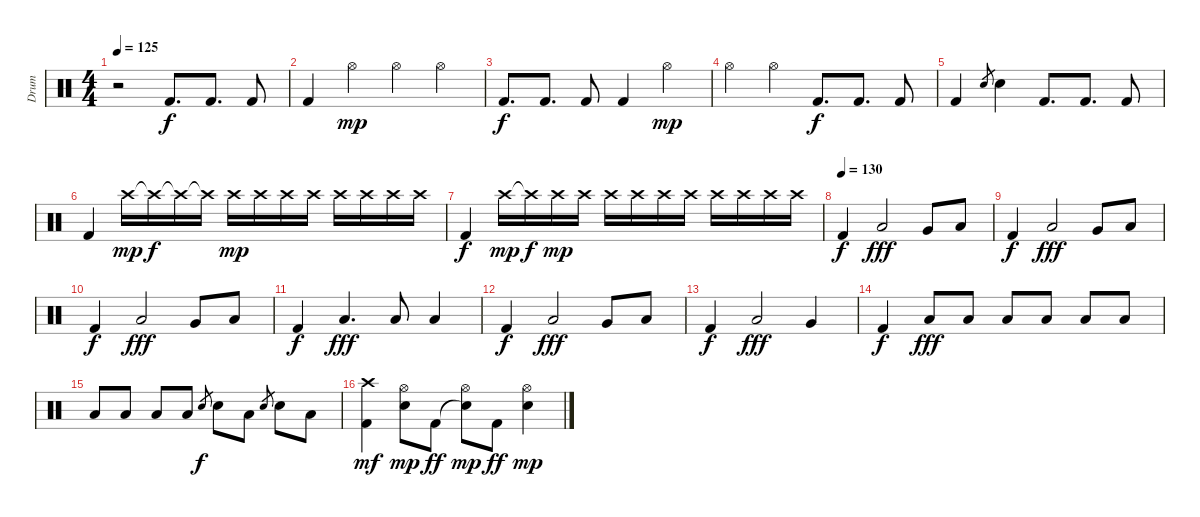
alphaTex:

\track ("Drum" "Drum") {instrument percussion}
\staff {score}
\articulation defaults
\ts (4 4)
\tempo 125
\clef neutral
\ks c
r.2{dy f} "Kick (hit) 2".8{d} "Kick (hit) 2".8{d} "Kick (hit) 2".8 |
"Kick (hit) 2".4 "Hi-Hat (open)".4{dy mp} "Hi-Hat (open)".4 "Hi-Hat (open)".4 |
"Kick (hit) 2".8{d dy f} "Kick (hit) 2".8{d} "Kick (hit) 2".8 "Kick (hit) 2".4 "Hi-Hat (open)".4{dy mp} |
"Hi-Hat (open)".4 "Hi-Hat (open)".4 "Kick (hit) 2".8{d dy f} "Kick (hit) 2".8{d} "Kick (hit) 2".8 |
"Kick (hit) 2".4 "Electric Snare (hit)".8{gr} "Electric Snare (hit)".4 "Kick (hit) 2".8{d} "Kick (hit) 2".8{d} "Kick (hit) 2".8 |
"Kick (hit) 2".4 "Crash high (hit)".16{dy mp} "Crash high (hit)"{t}.16{dy f} "Crash high (hit)"{t}.16 "Crash high (hit)"{t}.16 "Crash high (hit)".16{dy mp} "Crash high (hit)".16 "Crash high (hit)".16 "Crash high (hit)".16 "Crash high (hit)".16 "Crash high (hit)".16 "Crash high (hit)".16 "Crash high (hit)".16 |
"Kick (hit) 2".4{dy f} "Crash high (hit)".16{dy mp} "Crash high (hit)"{t}.16{dy f} "Crash high (hit)".16{dy mp} "Crash high (hit)".16 "Crash high (hit)".16 "Crash high (hit)".16 "Crash high (hit)".16 "Crash high (hit)".16 "Crash high (hit)".16 "Crash high (hit)".16 "Crash high (hit)".16 "Crash high (hit)".16 |
\tempo (130)
"Kick (hit) 2".4{dy f} "Low Tom (hit)".2{dy fff} "Very Low Tom (hit)".8 "Low Floor Tom (hit)".8 |
"Kick (hit) 2".4{dy f} "Low Tom (hit)".2{dy fff} "Very Low Tom (hit)".8 "Low Floor Tom (hit)".8 |
"Kick (hit) 2".4{dy f} "Low Tom (hit)".2{dy fff} "Very Low Tom (hit)".8 "Low Floor Tom (hit)".8 |
"Kick (hit) 2".4{dy f} "Low Tom (hit)".4{d dy fff} "Low Tom (hit)".8 "Low Tom (hit)".4 |
"Kick (hit) 2".4{dy f} "Low Tom (hit)".2{dy fff} "Very Low Tom (hit)".8 "Low Floor Tom (hit)".8 |
"Kick (hit) 2".4{dy f} "Low Tom (hit)".2{dy fff} "Very Low Tom (hit)".4 |
"Kick (hit) 2".4{dy f} "Low Tom (hit)".8{dy fff} "Low Tom (hit)".8 "Low Tom (hit)".8 "Low Tom (hit)".8 "Low Tom (hit)".8 "Low Tom (hit)".8 |
"Low Tom (hit)".8 "Low Tom (hit)".8 "Low Tom (hit)".8 "Low Tom (hit)".8 "Electric Snare (hit)".8{gr dy f} "Electric Snare (hit)".8 "Low Tom (hit)".8 "Electric Snare (hit)".8{gr} "Electric Snare (hit)".8 "Low Tom (hit)".8 |
("Kick (hit) 2" "Crash high (hit)").4{dy mf} ("Electric Snare (hit)" "Hi-Hat (open)").8{dy mp} "Kick (hit) 2".8{dy ff} ("Snare (hit)"{t} "Hi-Hat (open)").8{dy mp} "Kick (hit) 2".8{dy ff} ("Electric Snare (hit)" "Hi-Hat (open)").4{dy mp}
